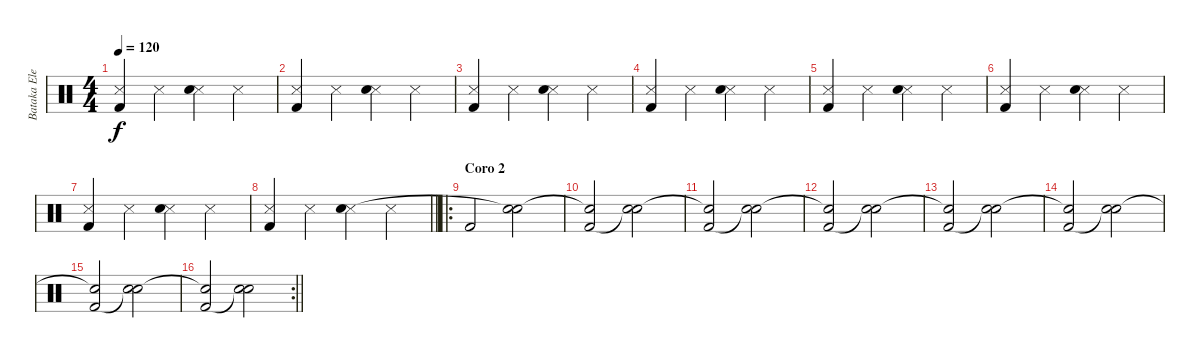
\track ("Bataka Electrica" "Bataka Ele") {instrument percussion}
\staff {score}
\articulation defaults
\ts (4 4)
\tempo 120
\clef neutral
\ks c
("Metronome (hit)" "Kick (hit) 2").4{dy f} "Metronome (hit)".4 ("Metronome (hit)" "Snare (hit) 2").4 "Metronome (hit)".4 |
("Metronome (hit)" "Kick (hit) 2").4 "Metronome (hit)".4 ("Metronome (hit)" "Snare (hit) 2").4 "Metronome (hit)".4 |
("Metronome (hit)" "Kick (hit) 2").4 "Metronome (hit)".4 ("Metronome (hit)" "Snare (hit) 2").4 "Metronome (hit)".4 |
("Metronome (hit)" "Kick (hit) 2").4 "Metronome (hit)".4 ("Metronome (hit)" "Snare (hit) 2").4 "Metronome (hit)".4 |
("Metronome (hit)" "Kick (hit) 2").4 "Metronome (hit)".4 ("Metronome (hit)" "Snare (hit) 2").4 "Metronome (hit)".4 |
("Metronome (hit)" "Kick (hit) 2").4 "Metronome (hit)".4 ("Metronome (hit)" "Snare (hit) 2").4 "Metronome (hit)".4 |
("Metronome (hit)" "Kick (hit) 2").4 "Metronome (hit)".4 ("Metronome (hit)" "Snare (hit) 2").4 "Metronome (hit)".4 |
\barLineRight lightlight
("Metronome (hit)" "Kick (hit) 2").4 "Metronome (hit)".4 ("Metronome (hit)" "Snare (hit) 2").4 "Metronome (hit)".4 |
\ro
\section ("" "Coro 2")
"Kick (hit) 2".2 ("Snare (hit) 2" "Snare (hit)"{t}).2 |
("Snare (hit)"{t} "Kick (hit) 2").2 ("Snare (hit) 2" "Snare (hit)"{t}).2 |
("Snare (hit)"{t} "Kick (hit) 2").2 ("Snare (hit) 2" "Snare (hit)"{t}).2 |
("Snare (hit)"{t} "Kick (hit) 2").2 ("Snare (hit) 2" "Snare (hit)"{t}).2 |
("Snare (hit)"{t} "Kick (hit) 2").2 ("Snare (hit) 2" "Snare (hit)"{t}).2 |
("Snare (hit)"{t} "Kick (hit) 2").2 ("Snare (hit) 2" "Snare (hit)"{t}).2 |
("Snare (hit)"{t} "Kick (hit) 2").2 ("Snare (hit) 2" "Snare (hit)"{t}).2 |
\rc 2
\barLineRight lightlight
("Snare (hit)"{t} "Kick (hit) 2").2 ("Snare (hit) 2" "Snare (hit)"{t}).2
